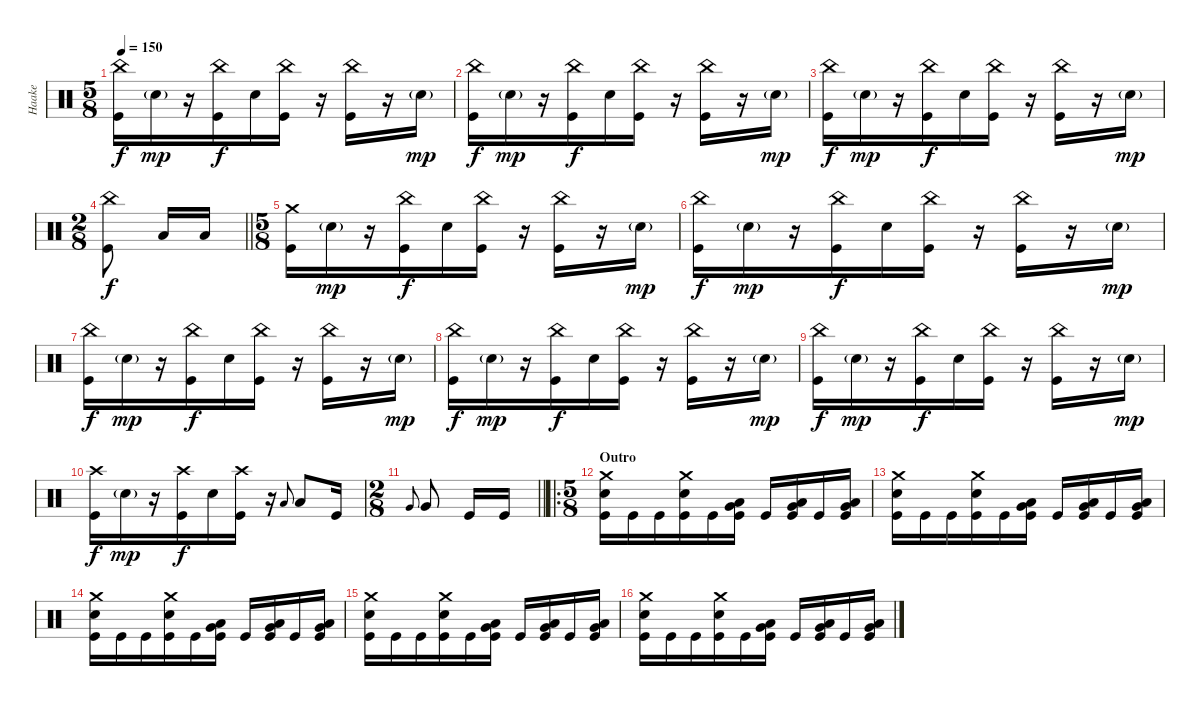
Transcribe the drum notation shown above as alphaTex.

\track ("Haake" "Haake") {instrument percussion}
\staff {score}
\articulation defaults
\ts (5 8)
\tempo 150
\clef neutral
\ks c
("China (hit)" "Kick (hit)").16{dy f} "Snare (hit) 2"{g}.16{dy mp} r.16 ("China (hit)" "Kick (hit)").16{dy f} "Snare (hit) 2".16 ("China (hit)" "Kick (hit)").16 r.16 ("China (hit)" "Kick (hit)").16 r.16 "Snare (hit) 2"{g}.16{dy mp} |
("China (hit)" "Kick (hit)").16{dy f} "Snare (hit) 2"{g}.16{dy mp} r.16 ("China (hit)" "Kick (hit)").16{dy f} "Snare (hit) 2".16 ("China (hit)" "Kick (hit)").16 r.16 ("China (hit)" "Kick (hit)").16 r.16 "Snare (hit) 2"{g}.16{dy mp} |
("China (hit)" "Kick (hit)").16{dy f} "Snare (hit) 2"{g}.16{dy mp} r.16 ("China (hit)" "Kick (hit)").16{dy f} "Snare (hit) 2".16 ("China (hit)" "Kick (hit)").16 r.16 ("China (hit)" "Kick (hit)").16 r.16 "Snare (hit) 2"{g}.16{dy mp} |
\ts (2 8)
\barLineRight lightlight
("China (hit)" "Kick (hit)").8{dy f} "Low Tom (hit)".16 "Low Tom (hit)".16 |
\ts (5 8)
("Crash medium (hit)" "Kick (hit)").16 "Snare (hit) 2"{g}.16{dy mp} r.16 ("China (hit)" "Kick (hit)").16{dy f} "Snare (hit) 2".16 ("China (hit)" "Kick (hit)").16 r.16 ("China (hit)" "Kick (hit)").16 r.16 "Snare (hit) 2"{g}.16{dy mp} |
("China (hit)" "Kick (hit)").16{dy f} "Snare (hit) 2"{g}.16{dy mp} r.16 ("China (hit)" "Kick (hit)").16{dy f} "Snare (hit) 2".16 ("China (hit)" "Kick (hit)").16 r.16 ("China (hit)" "Kick (hit)").16 r.16 "Snare (hit) 2"{g}.16{dy mp} |
("China (hit)" "Kick (hit)").16{dy f} "Snare (hit) 2"{g}.16{dy mp} r.16 ("China (hit)" "Kick (hit)").16{dy f} "Snare (hit) 2".16 ("China (hit)" "Kick (hit)").16 r.16 ("China (hit)" "Kick (hit)").16 r.16 "Snare (hit) 2"{g}.16{dy mp} |
("China (hit)" "Kick (hit)").16{dy f} "Snare (hit) 2"{g}.16{dy mp} r.16 ("China (hit)" "Kick (hit)").16{dy f} "Snare (hit) 2".16 ("China (hit)" "Kick (hit)").16 r.16 ("China (hit)" "Kick (hit)").16 r.16 "Snare (hit) 2"{g}.16{dy mp} |
("China (hit)" "Kick (hit)").16{dy f} "Snare (hit) 2"{g}.16{dy mp} r.16 ("China (hit)" "Kick (hit)").16{dy f} "Snare (hit) 2".16 ("China (hit)" "Kick (hit)").16 r.16 ("China (hit)" "Kick (hit)").16 r.16 "Snare (hit) 2"{g}.16{dy mp} |
("Crash high (hit)" "Kick (hit)").16{dy f} "Snare (hit) 2"{g}.16{dy mp} r.16 ("Crash high (hit)" "Kick (hit)").16{dy f} "Snare (hit) 2".16 ("Crash high (hit)" "Kick (hit)").16 r.16 "Low Tom (hit)".8{gr onbeat} "Low Tom (hit)".8 "Kick (hit)".16 |
\ts (2 8)
\barLineRight lightlight "Very Low Tom (hit)".8{gr onbeat} "Very Low Tom (hit)".8 "Kick (hit)".16 "Kick (hit)".16
|
\ro
\ts (5 8)
\section ("" "Outro")
("Crash medium (hit)" "Snare (hit) 2" "Kick (hit)").16 "Kick (hit)".16 "Kick (hit)".16 ("Crash medium (hit)" "Snare (hit) 2" "Kick (hit)").16 "Kick (hit)".16 ("Low Tom (hit)" "Very Low Tom (hit)" "Kick (hit)").16 "Kick (hit)".16 ("Low Tom (hit)" "Very Low Tom (hit)" "Kick (hit)").16 "Kick (hit)".16 ("Low Tom (hit)" "Very Low Tom (hit)" "Kick (hit)").16 |
("Crash medium (hit)" "Snare (hit) 2" "Kick (hit)").16 "Kick (hit)".16 "Kick (hit)".16 ("Crash medium (hit)" "Snare (hit) 2" "Kick (hit)").16 "Kick (hit)".16 ("Low Tom (hit)" "Very Low Tom (hit)" "Kick (hit)").16 "Kick (hit)".16 ("Low Tom (hit)" "Very Low Tom (hit)" "Kick (hit)").16 "Kick (hit)".16 ("Low Tom (hit)" "Very Low Tom (hit)" "Kick (hit)").16 |
("Crash medium (hit)" "Snare (hit) 2" "Kick (hit)").16 "Kick (hit)".16 "Kick (hit)".16 ("Crash medium (hit)" "Snare (hit) 2" "Kick (hit)").16 "Kick (hit)".16 ("Low Tom (hit)" "Very Low Tom (hit)" "Kick (hit)").16 "Kick (hit)".16 ("Low Tom (hit)" "Very Low Tom (hit)" "Kick (hit)").16 "Kick (hit)".16 ("Low Tom (hit)" "Very Low Tom (hit)" "Kick (hit)").16 |
("Crash medium (hit)" "Snare (hit) 2" "Kick (hit)").16 "Kick (hit)".16 "Kick (hit)".16 ("Crash medium (hit)" "Snare (hit) 2" "Kick (hit)").16 "Kick (hit)".16 ("Low Tom (hit)" "Very Low Tom (hit)" "Kick (hit)").16 "Kick (hit)".16 ("Low Tom (hit)" "Very Low Tom (hit)" "Kick (hit)").16 "Kick (hit)".16 ("Low Tom (hit)" "Very Low Tom (hit)" "Kick (hit)").16 |
("Crash medium (hit)" "Snare (hit) 2" "Kick (hit)").16 "Kick (hit)".16 "Kick (hit)".16 ("Crash medium (hit)" "Snare (hit) 2" "Kick (hit)").16 "Kick (hit)".16 ("Low Tom (hit)" "Very Low Tom (hit)" "Kick (hit)").16 "Kick (hit)".16 ("Low Tom (hit)" "Very Low Tom (hit)" "Kick (hit)").16 "Kick (hit)".16 ("Low Tom (hit)" "Very Low Tom (hit)" "Kick (hit)").16
